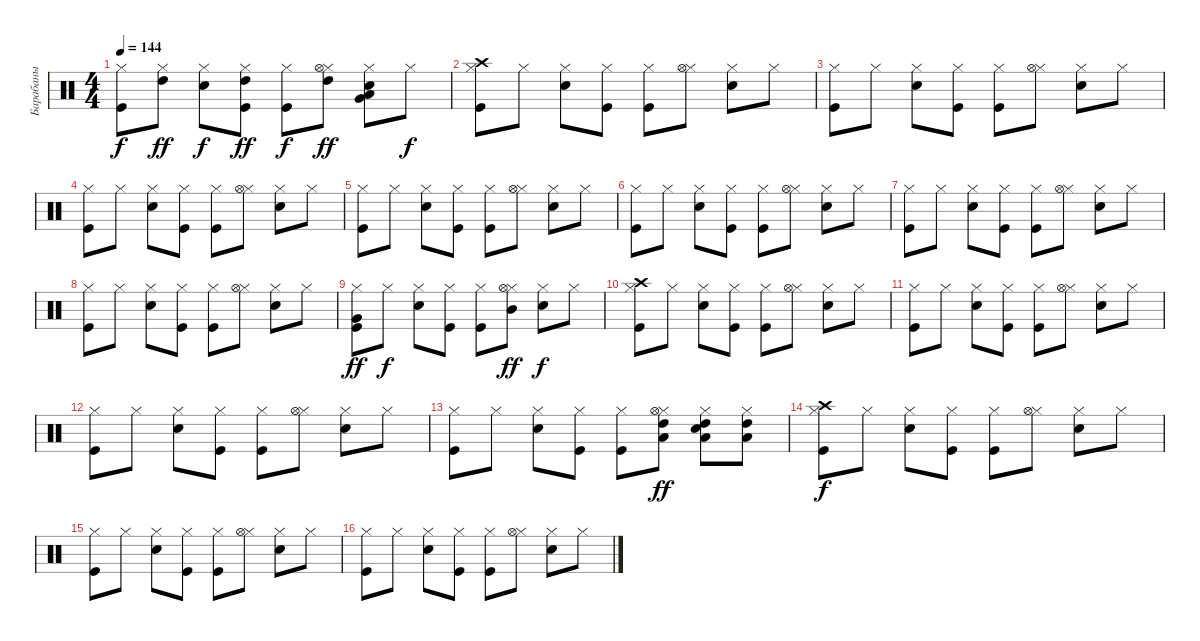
\track ("Барабаны" "Барабаны") {instrument percussion}
\staff {score}
\articulation defaults
\ts (4 4)
\tempo 144
\clef neutral
\ks c
("Kick (hit)" "Hi-Hat (closed)").8{dy f} ("Hi-Hat (closed)" "High Tom (hit)").8{dy ff} ("Snare (hit) 2" "Hi-Hat (closed)").8{dy f} ("Kick (hit)" "Hi-Hat (closed)" "High Tom (hit)").8{dy ff} ("Kick (hit)" "Hi-Hat (closed)").8{dy f} ("Hi-Hat (closed)" "High Tom (hit)" "Hi-Hat (open)").8{dy ff} ("Snare (hit) 2" "Hi-Hat (closed)" "Low Floor Tom (hit)" "Very Low Tom (hit)").8 "Hi-Hat (closed)".8{dy f} |
("Kick (hit)" "Hi-Hat (closed)" "Crash high (hit)").8 "Hi-Hat (closed)".8 ("Snare (hit) 2" "Hi-Hat (closed)").8 ("Kick (hit)" "Hi-Hat (closed)").8 ("Kick (hit)" "Hi-Hat (closed)").8 ("Hi-Hat (closed)" "Hi-Hat (open)").8 ("Snare (hit) 2" "Hi-Hat (closed)").8 "Hi-Hat (closed)".8 |
("Kick (hit)" "Hi-Hat (closed)").8 "Hi-Hat (closed)".8 ("Snare (hit) 2" "Hi-Hat (closed)").8 ("Kick (hit)" "Hi-Hat (closed)").8 ("Kick (hit)" "Hi-Hat (closed)").8 ("Hi-Hat (closed)" "Hi-Hat (open)").8 ("Snare (hit) 2" "Hi-Hat (closed)").8 "Hi-Hat (closed)".8 |
("Kick (hit)" "Hi-Hat (closed)").8 "Hi-Hat (closed)".8 ("Snare (hit) 2" "Hi-Hat (closed)").8 ("Kick (hit)" "Hi-Hat (closed)").8 ("Kick (hit)" "Hi-Hat (closed)").8 ("Hi-Hat (closed)" "Hi-Hat (open)").8 ("Snare (hit) 2" "Hi-Hat (closed)").8 "Hi-Hat (closed)".8 |
("Kick (hit)" "Hi-Hat (closed)").8 "Hi-Hat (closed)".8 ("Snare (hit) 2" "Hi-Hat (closed)").8 ("Kick (hit)" "Hi-Hat (closed)").8 ("Kick (hit)" "Hi-Hat (closed)").8 ("Hi-Hat (closed)" "Hi-Hat (open)").8 ("Snare (hit) 2" "Hi-Hat (closed)").8 "Hi-Hat (closed)".8 |
("Kick (hit)" "Hi-Hat (closed)").8 "Hi-Hat (closed)".8 ("Snare (hit) 2" "Hi-Hat (closed)").8 ("Kick (hit)" "Hi-Hat (closed)").8 ("Kick (hit)" "Hi-Hat (closed)").8 ("Hi-Hat (closed)" "Hi-Hat (open)").8 ("Snare (hit) 2" "Hi-Hat (closed)").8 "Hi-Hat (closed)".8 |
("Kick (hit)" "Hi-Hat (closed)").8 "Hi-Hat (closed)".8 ("Snare (hit) 2" "Hi-Hat (closed)").8 ("Kick (hit)" "Hi-Hat (closed)").8 ("Kick (hit)" "Hi-Hat (closed)").8 ("Hi-Hat (closed)" "Hi-Hat (open)").8 ("Snare (hit) 2" "Hi-Hat (closed)").8 "Hi-Hat (closed)".8 |
("Kick (hit)" "Hi-Hat (closed)").8 "Hi-Hat (closed)".8 ("Snare (hit) 2" "Hi-Hat (closed)").8 ("Kick (hit)" "Hi-Hat (closed)").8 ("Kick (hit)" "Hi-Hat (closed)").8 ("Hi-Hat (closed)" "Hi-Hat (open)").8 ("Snare (hit) 2" "Hi-Hat (closed)").8 "Hi-Hat (closed)".8 |
("Kick (hit)" "Hi-Hat (closed)" "Very Low Tom (hit)").8{dy ff} "Hi-Hat (closed)".8{dy f} ("Snare (hit) 2" "Hi-Hat (closed)").8 ("Kick (hit)" "Hi-Hat (closed)").8 ("Kick (hit)" "Hi-Hat (closed)").8 ("Hi-Hat (closed)" "Mid Tom (hit)" "Hi-Hat (open)").8{dy ff} ("Snare (hit) 2" "Hi-Hat (closed)").8{dy f} "Hi-Hat (closed)".8 |
("Kick (hit)" "Hi-Hat (closed)" "Crash high (hit)").8 "Hi-Hat (closed)".8 ("Snare (hit) 2" "Hi-Hat (closed)").8 ("Kick (hit)" "Hi-Hat (closed)").8 ("Kick (hit)" "Hi-Hat (closed)").8 ("Hi-Hat (closed)" "Hi-Hat (open)").8 ("Snare (hit) 2" "Hi-Hat (closed)").8 "Hi-Hat (closed)".8 |
("Kick (hit)" "Hi-Hat (closed)").8 "Hi-Hat (closed)".8 ("Snare (hit) 2" "Hi-Hat (closed)").8 ("Kick (hit)" "Hi-Hat (closed)").8 ("Kick (hit)" "Hi-Hat (closed)").8 ("Hi-Hat (closed)" "Hi-Hat (open)").8 ("Snare (hit) 2" "Hi-Hat (closed)").8 "Hi-Hat (closed)".8 |
("Kick (hit)" "Hi-Hat (closed)").8 "Hi-Hat (closed)".8 ("Snare (hit) 2" "Hi-Hat (closed)").8 ("Kick (hit)" "Hi-Hat (closed)").8 ("Kick (hit)" "Hi-Hat (closed)").8 ("Hi-Hat (closed)" "Hi-Hat (open)").8 ("Snare (hit) 2" "Hi-Hat (closed)").8 "Hi-Hat (closed)".8 |
("Kick (hit)" "Hi-Hat (closed)").8 "Hi-Hat (closed)".8 ("Snare (hit) 2" "Hi-Hat (closed)").8 ("Kick (hit)" "Hi-Hat (closed)").8 ("Kick (hit)" "Hi-Hat (closed)").8 ("Hi-Hat (closed)" "Low Floor Tom (hit)" "High Tom (hit)" "Hi-Hat (open)").8{dy ff} ("Snare (hit) 2" "Hi-Hat (closed)" "Low Floor Tom (hit)" "High Tom (hit)").8 ("Hi-Hat (closed)" "Low Floor Tom (hit)" "High Tom (hit)").8 |
("Kick (hit)" "Hi-Hat (closed)" "Crash high (hit)").8{dy f} "Hi-Hat (closed)".8 ("Snare (hit) 2" "Hi-Hat (closed)").8 ("Kick (hit)" "Hi-Hat (closed)").8 ("Kick (hit)" "Hi-Hat (closed)").8 ("Hi-Hat (closed)" "Hi-Hat (open)").8 ("Snare (hit) 2" "Hi-Hat (closed)").8 "Hi-Hat (closed)".8 |
("Kick (hit)" "Hi-Hat (closed)").8 "Hi-Hat (closed)".8 ("Snare (hit) 2" "Hi-Hat (closed)").8 ("Kick (hit)" "Hi-Hat (closed)").8 ("Kick (hit)" "Hi-Hat (closed)").8 ("Hi-Hat (closed)" "Hi-Hat (open)").8 ("Snare (hit) 2" "Hi-Hat (closed)").8 "Hi-Hat (closed)".8 |
("Kick (hit)" "Hi-Hat (closed)").8 "Hi-Hat (closed)".8 ("Snare (hit) 2" "Hi-Hat (closed)").8 ("Kick (hit)" "Hi-Hat (closed)").8 ("Kick (hit)" "Hi-Hat (closed)").8 ("Hi-Hat (closed)" "Hi-Hat (open)").8 ("Snare (hit) 2" "Hi-Hat (closed)").8 "Hi-Hat (closed)".8
